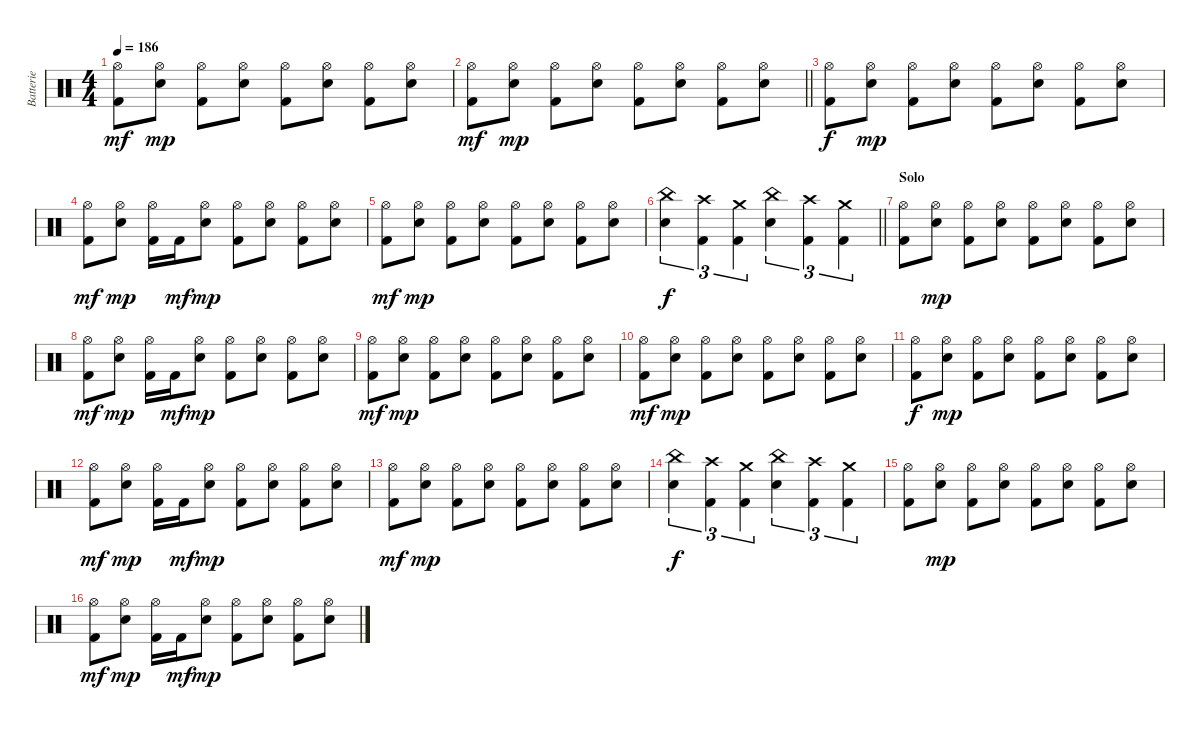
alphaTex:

\track ("Batterie" "Batterie") {instrument percussion}
\staff {score}
\articulation defaults
\ts (4 4)
\tempo 186
\clef neutral
\ks c
("Kick (hit) 2" "Hi-Hat (open)").8{dy mf} ("Electric Snare (hit)" "Hi-Hat (open)").8{dy mp} ("Kick (hit) 2" "Hi-Hat (open)").8 ("Electric Snare (hit)" "Hi-Hat (open)").8 ("Kick (hit) 2" "Hi-Hat (open)").8 ("Electric Snare (hit)" "Hi-Hat (open)").8 ("Kick (hit) 2" "Hi-Hat (open)").8 ("Electric Snare (hit)" "Hi-Hat (open)").8 |
\barLineRight lightlight
("Kick (hit) 2" "Hi-Hat (open)").8{dy mf} ("Electric Snare (hit)" "Hi-Hat (open)").8{dy mp} ("Kick (hit) 2" "Hi-Hat (open)").8 ("Electric Snare (hit)" "Hi-Hat (open)").8 ("Kick (hit) 2" "Hi-Hat (open)").8 ("Electric Snare (hit)" "Hi-Hat (open)").8 ("Kick (hit) 2" "Hi-Hat (open)").8 ("Electric Snare (hit)" "Hi-Hat (open)").8 |
("Kick (hit) 2" "Hi-Hat (open)").8{dy f} ("Electric Snare (hit)" "Hi-Hat (open)").8{dy mp} ("Kick (hit) 2" "Hi-Hat (open)").8 ("Electric Snare (hit)" "Hi-Hat (open)").8 ("Kick (hit) 2" "Hi-Hat (open)").8 ("Electric Snare (hit)" "Hi-Hat (open)").8 ("Kick (hit) 2" "Hi-Hat (open)").8 ("Electric Snare (hit)" "Hi-Hat (open)").8 |
("Kick (hit) 2" "Hi-Hat (open)").8{dy mf} ("Electric Snare (hit)" "Hi-Hat (open)").8{dy mp} ("Kick (hit) 2" "Hi-Hat (open)").16 "Kick (hit) 2".16{dy mf} ("Electric Snare (hit)" "Hi-Hat (open)").8{dy mp} ("Kick (hit) 2" "Hi-Hat (open)").8 ("Electric Snare (hit)" "Hi-Hat (open)").8 ("Kick (hit) 2" "Hi-Hat (open)").8 ("Electric Snare (hit)" "Hi-Hat (open)").8 |
("Kick (hit) 2" "Hi-Hat (open)").8{dy mf} ("Electric Snare (hit)" "Hi-Hat (open)").8{dy mp} ("Kick (hit) 2" "Hi-Hat (open)").8 ("Electric Snare (hit)" "Hi-Hat (open)").8 ("Kick (hit) 2" "Hi-Hat (open)").8 ("Electric Snare (hit)" "Hi-Hat (open)").8 ("Kick (hit) 2" "Hi-Hat (open)").8 ("Electric Snare (hit)" "Hi-Hat (open)").8 |
\barLineRight lightlight
("Electric Snare (hit)" "China (hit)").4{tu (3 2) dy f} ("Kick (hit) 2" "Crash high (hit)").4{tu (3 2)} ("Kick (hit) 2" "Crash medium (hit)").4{tu (3 2)} ("Electric Snare (hit)" "China (hit)").4{tu (3 2)} ("Kick (hit) 2" "Crash high (hit)").4{tu (3 2)} ("Kick (hit) 2" "Crash medium (hit)").4{tu (3 2)} |
\section ("" "Solo")
("Kick (hit) 2" "Hi-Hat (open)").8 ("Electric Snare (hit)" "Hi-Hat (open)").8{dy mp} ("Kick (hit) 2" "Hi-Hat (open)").8 ("Electric Snare (hit)" "Hi-Hat (open)").8 ("Kick (hit) 2" "Hi-Hat (open)").8 ("Electric Snare (hit)" "Hi-Hat (open)").8 ("Kick (hit) 2" "Hi-Hat (open)").8 ("Electric Snare (hit)" "Hi-Hat (open)").8 |
("Kick (hit) 2" "Hi-Hat (open)").8{dy mf} ("Electric Snare (hit)" "Hi-Hat (open)").8{dy mp} ("Kick (hit) 2" "Hi-Hat (open)").16 "Kick (hit) 2".16{dy mf} ("Electric Snare (hit)" "Hi-Hat (open)").8{dy mp} ("Kick (hit) 2" "Hi-Hat (open)").8 ("Electric Snare (hit)" "Hi-Hat (open)").8 ("Kick (hit) 2" "Hi-Hat (open)").8 ("Electric Snare (hit)" "Hi-Hat (open)").8 |
("Kick (hit) 2" "Hi-Hat (open)").8{dy mf} ("Electric Snare (hit)" "Hi-Hat (open)").8{dy mp} ("Kick (hit) 2" "Hi-Hat (open)").8 ("Electric Snare (hit)" "Hi-Hat (open)").8 ("Kick (hit) 2" "Hi-Hat (open)").8 ("Electric Snare (hit)" "Hi-Hat (open)").8 ("Kick (hit) 2" "Hi-Hat (open)").8 ("Electric Snare (hit)" "Hi-Hat (open)").8 |
("Kick (hit) 2" "Hi-Hat (open)").8{dy mf} ("Electric Snare (hit)" "Hi-Hat (open)").8{dy mp} ("Kick (hit) 2" "Hi-Hat (open)").8 ("Electric Snare (hit)" "Hi-Hat (open)").8 ("Kick (hit) 2" "Hi-Hat (open)").8 ("Electric Snare (hit)" "Hi-Hat (open)").8 ("Kick (hit) 2" "Hi-Hat (open)").8 ("Electric Snare (hit)" "Hi-Hat (open)").8 |
("Kick (hit) 2" "Hi-Hat (open)").8{dy f} ("Electric Snare (hit)" "Hi-Hat (open)").8{dy mp} ("Kick (hit) 2" "Hi-Hat (open)").8 ("Electric Snare (hit)" "Hi-Hat (open)").8 ("Kick (hit) 2" "Hi-Hat (open)").8 ("Electric Snare (hit)" "Hi-Hat (open)").8 ("Kick (hit) 2" "Hi-Hat (open)").8 ("Electric Snare (hit)" "Hi-Hat (open)").8 |
("Kick (hit) 2" "Hi-Hat (open)").8{dy mf} ("Electric Snare (hit)" "Hi-Hat (open)").8{dy mp} ("Kick (hit) 2" "Hi-Hat (open)").16 "Kick (hit) 2".16{dy mf} ("Electric Snare (hit)" "Hi-Hat (open)").8{dy mp} ("Kick (hit) 2" "Hi-Hat (open)").8 ("Electric Snare (hit)" "Hi-Hat (open)").8 ("Kick (hit) 2" "Hi-Hat (open)").8 ("Electric Snare (hit)" "Hi-Hat (open)").8 |
("Kick (hit) 2" "Hi-Hat (open)").8{dy mf} ("Electric Snare (hit)" "Hi-Hat (open)").8{dy mp} ("Kick (hit) 2" "Hi-Hat (open)").8 ("Electric Snare (hit)" "Hi-Hat (open)").8 ("Kick (hit) 2" "Hi-Hat (open)").8 ("Electric Snare (hit)" "Hi-Hat (open)").8 ("Kick (hit) 2" "Hi-Hat (open)").8 ("Electric Snare (hit)" "Hi-Hat (open)").8 |
("Electric Snare (hit)" "China (hit)").4{tu (3 2) dy f} ("Kick (hit) 2" "Crash high (hit)").4{tu (3 2)} ("Kick (hit) 2" "Crash medium (hit)").4{tu (3 2)} ("Electric Snare (hit)" "China (hit)").4{tu (3 2)} ("Kick (hit) 2" "Crash high (hit)").4{tu (3 2)} ("Kick (hit) 2" "Crash medium (hit)").4{tu (3 2)} |
("Kick (hit) 2" "Hi-Hat (open)").8 ("Electric Snare (hit)" "Hi-Hat (open)").8{dy mp} ("Kick (hit) 2" "Hi-Hat (open)").8 ("Electric Snare (hit)" "Hi-Hat (open)").8 ("Kick (hit) 2" "Hi-Hat (open)").8 ("Electric Snare (hit)" "Hi-Hat (open)").8 ("Kick (hit) 2" "Hi-Hat (open)").8 ("Electric Snare (hit)" "Hi-Hat (open)").8 |
("Kick (hit) 2" "Hi-Hat (open)").8{dy mf} ("Electric Snare (hit)" "Hi-Hat (open)").8{dy mp} ("Kick (hit) 2" "Hi-Hat (open)").16 "Kick (hit) 2".16{dy mf} ("Electric Snare (hit)" "Hi-Hat (open)").8{dy mp} ("Kick (hit) 2" "Hi-Hat (open)").8 ("Electric Snare (hit)" "Hi-Hat (open)").8 ("Kick (hit) 2" "Hi-Hat (open)").8 ("Electric Snare (hit)" "Hi-Hat (open)").8
